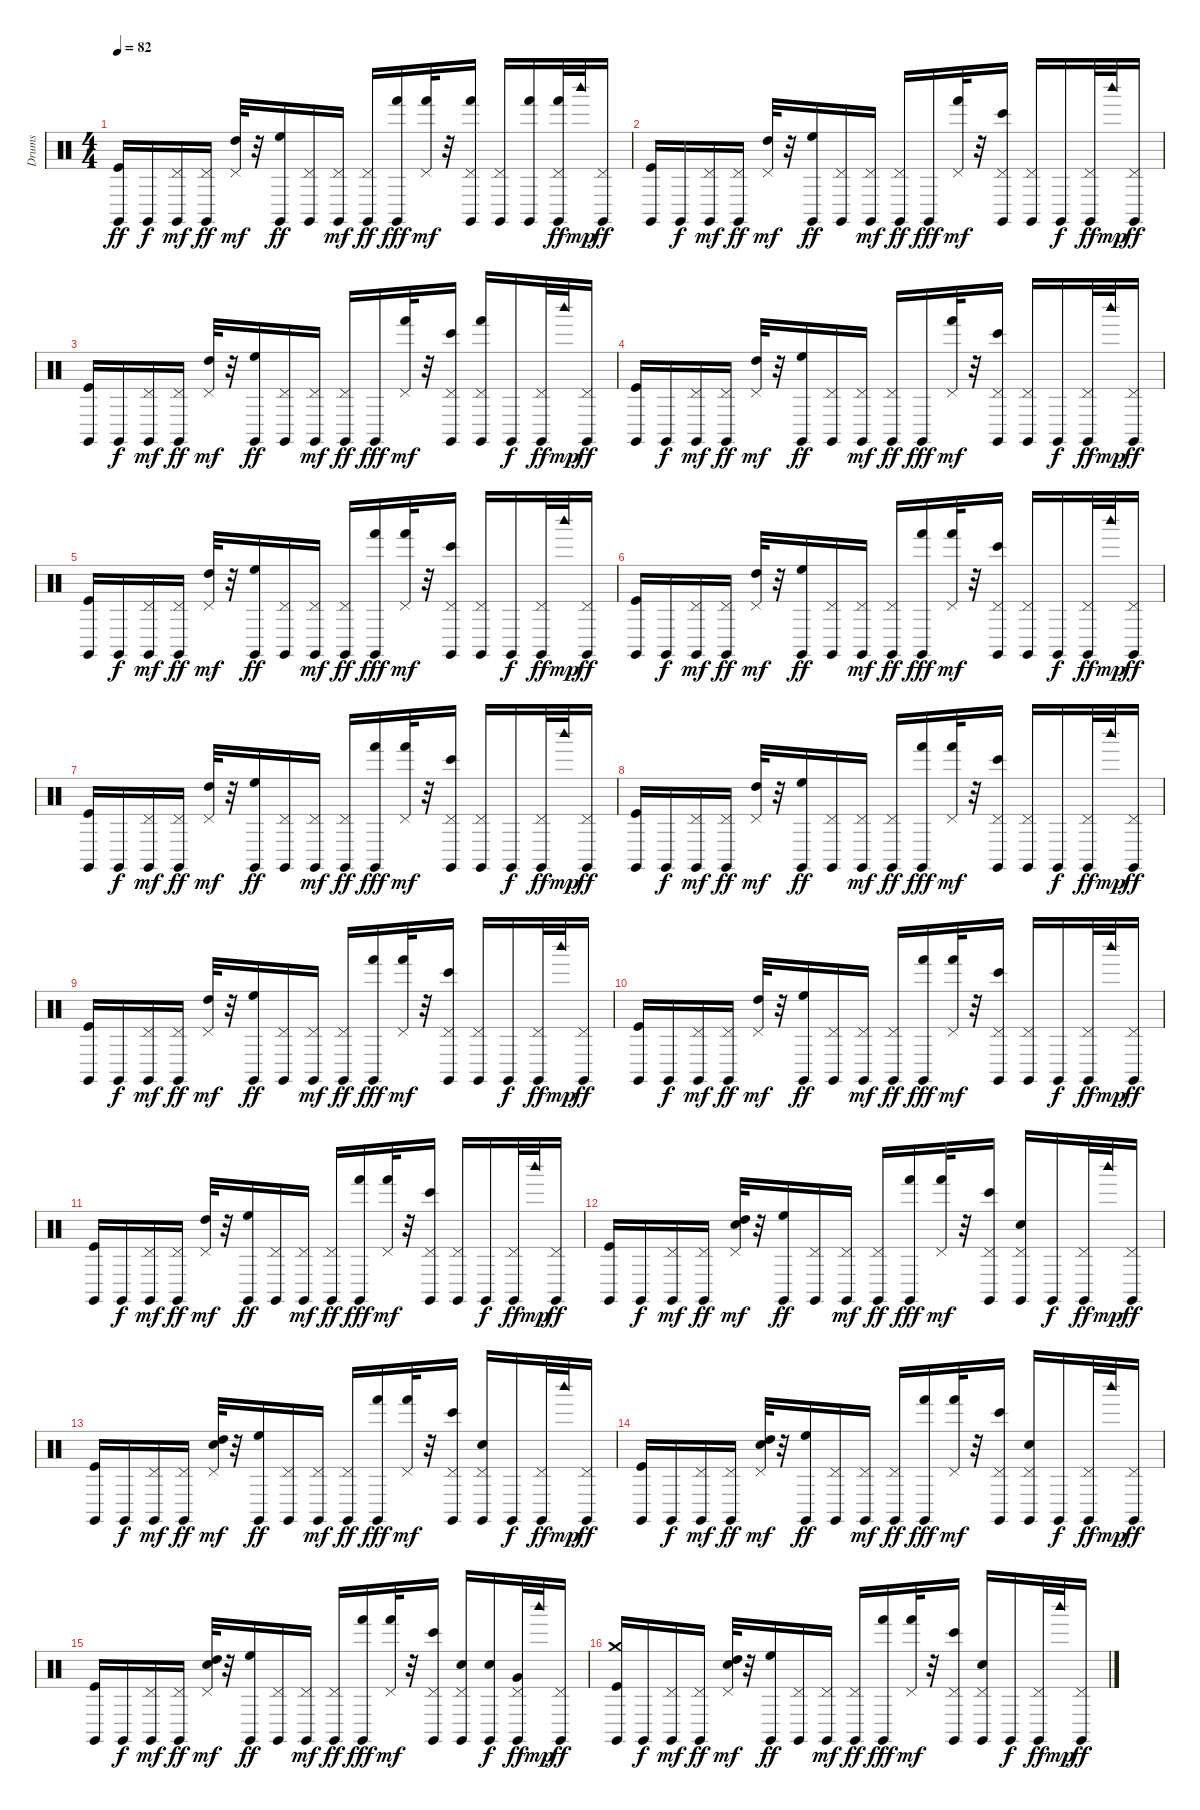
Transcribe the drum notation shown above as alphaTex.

\track ("Drums" "Drums") {instrument percussion}
\staff {score}
\articulation defaults
\ts (4 4)
\tempo 82
\clef neutral
\ks c
("Kick (hit)" "Claves (hit)").16{dy ff} "Claves (hit)".16{dy f} ("Pedal Hi-Hat (hit)" "Claves (hit)").16{dy mf} ("Pedal Hi-Hat (hit)" "Claves (hit)").16{dy ff} ("High Tom (hit)" "Pedal Hi-Hat (hit)").32{dy mf} r.32 ("High Floor Tom (hit)" "Claves (hit)").16{dy ff} ("Pedal Hi-Hat (hit)" "Claves (hit)").16 ("Pedal Hi-Hat (hit)" "Claves (hit)").16{dy mf} ("Pedal Hi-Hat (hit)" "Claves (hit)").16{dy ff} ("Hand (hit)" "Claves (hit)").16{dy fff} ("Hand (hit)" "Pedal Hi-Hat (hit)").32{dy mf} r.32 ("Hand (hit)" "Pedal Hi-Hat (hit)" "Claves (hit)").16 ("Pedal Hi-Hat (hit)" "Claves (hit)").16 ("Hand (hit)" "Claves (hit)").16 ("Hand (hit)" "Pedal Hi-Hat (hit)" "Claves (hit)").32{dy ff} "Woodblock high (hit)".32{dy mp} ("Pedal Hi-Hat (hit)" "Claves (hit)").16{dy ff} |
("Kick (hit)" "Claves (hit)").16 "Claves (hit)".16{dy f} ("Pedal Hi-Hat (hit)" "Claves (hit)").16{dy mf} ("Pedal Hi-Hat (hit)" "Claves (hit)").16{dy ff} ("High Tom (hit)" "Pedal Hi-Hat (hit)").32{dy mf} r.32 ("High Floor Tom (hit)" "Claves (hit)").16{dy ff} ("Pedal Hi-Hat (hit)" "Claves (hit)").16 ("Pedal Hi-Hat (hit)" "Claves (hit)").16{dy mf} ("Pedal Hi-Hat (hit)" "Claves (hit)").16{dy ff} "Claves (hit)".16{dy fff} ("Hand (hit)" "Pedal Hi-Hat (hit)").32{dy mf} r.32 ("Bongo High (hit)" "Pedal Hi-Hat (hit)" "Claves (hit)").16 ("Pedal Hi-Hat (hit)" "Claves (hit)").16 "Claves (hit)".16{dy f} ("Pedal Hi-Hat (hit)" "Claves (hit)").32{dy ff} "Woodblock high (hit)".32{dy mp} ("Pedal Hi-Hat (hit)" "Claves (hit)").16{dy ff} |
("Kick (hit)" "Claves (hit)").16 "Claves (hit)".16{dy f} ("Pedal Hi-Hat (hit)" "Claves (hit)").16{dy mf} ("Pedal Hi-Hat (hit)" "Claves (hit)").16{dy ff} ("High Tom (hit)" "Pedal Hi-Hat (hit)").32{dy mf} r.32 ("High Floor Tom (hit)" "Claves (hit)").16{dy ff} ("Pedal Hi-Hat (hit)" "Claves (hit)").16 ("Pedal Hi-Hat (hit)" "Claves (hit)").16{dy mf} ("Pedal Hi-Hat (hit)" "Claves (hit)").16{dy ff} "Claves (hit)".16{dy fff} ("Hand (hit)" "Pedal Hi-Hat (hit)").32{dy mf} r.32 ("Bongo High (hit)" "Pedal Hi-Hat (hit)" "Claves (hit)").16 ("Hand (hit)" "Pedal Hi-Hat (hit)" "Claves (hit)").16 "Claves (hit)".16{dy f} ("Pedal Hi-Hat (hit)" "Claves (hit)").32{dy ff} "Woodblock high (hit)".32{dy mp} ("Pedal Hi-Hat (hit)" "Claves (hit)").16{dy ff} |
("Kick (hit)" "Claves (hit)").16{volume 12} "Claves (hit)".16{dy f} ("Pedal Hi-Hat (hit)" "Claves (hit)").16{dy mf} ("Pedal Hi-Hat (hit)" "Claves (hit)").16{dy ff} ("High Tom (hit)" "Pedal Hi-Hat (hit)").32{dy mf} r.32 ("High Floor Tom (hit)" "Claves (hit)").16{dy ff} ("Pedal Hi-Hat (hit)" "Claves (hit)").16 ("Pedal Hi-Hat (hit)" "Claves (hit)").16{dy mf} ("Pedal Hi-Hat (hit)" "Claves (hit)").16{dy ff} "Claves (hit)".16{dy fff} ("Hand (hit)" "Pedal Hi-Hat (hit)").32{dy mf volume 13} r.32 ("Bongo High (hit)" "Pedal Hi-Hat (hit)" "Claves (hit)").16 ("Pedal Hi-Hat (hit)" "Claves (hit)").16 "Claves (hit)".16{dy f} ("Pedal Hi-Hat (hit)" "Claves (hit)").32{dy ff} "Woodblock high (hit)".32{dy mp} ("Pedal Hi-Hat (hit)" "Claves (hit)").16{dy ff} |
("Kick (hit)" "Claves (hit)").16 "Claves (hit)".16{dy f} ("Pedal Hi-Hat (hit)" "Claves (hit)").16{dy mf} ("Pedal Hi-Hat (hit)" "Claves (hit)").16{dy ff} ("High Tom (hit)" "Pedal Hi-Hat (hit)").32{dy mf volume 13} r.32 ("High Floor Tom (hit)" "Claves (hit)").16{dy ff} ("Pedal Hi-Hat (hit)" "Claves (hit)").16 ("Pedal Hi-Hat (hit)" "Claves (hit)").16{dy mf} ("Pedal Hi-Hat (hit)" "Claves (hit)").16{dy ff} ("Hand (hit)" "Claves (hit)").16{dy fff} ("Hand (hit)" "Pedal Hi-Hat (hit)").32{dy mf} r.32 ("Bongo High (hit)" "Pedal Hi-Hat (hit)" "Claves (hit)").16 ("Pedal Hi-Hat (hit)" "Claves (hit)").16 "Claves (hit)".16{dy f volume 13} ("Pedal Hi-Hat (hit)" "Claves (hit)").32{dy ff} "Woodblock high (hit)".32{dy mp} ("Pedal Hi-Hat (hit)" "Claves (hit)").16{dy ff} |
("Kick (hit)" "Claves (hit)").16 "Claves (hit)".16{dy f} ("Pedal Hi-Hat (hit)" "Claves (hit)").16{dy mf} ("Pedal Hi-Hat (hit)" "Claves (hit)").16{dy ff} ("High Tom (hit)" "Pedal Hi-Hat (hit)").32{dy mf} r.32 ("High Floor Tom (hit)" "Claves (hit)").16{dy ff} ("Pedal Hi-Hat (hit)" "Claves (hit)").16 ("Pedal Hi-Hat (hit)" "Claves (hit)").16{dy mf volume 13} ("Pedal Hi-Hat (hit)" "Claves (hit)").16{dy ff} ("Hand (hit)" "Claves (hit)").16{dy fff} ("Hand (hit)" "Pedal Hi-Hat (hit)").32{dy mf} r.32 ("Bongo High (hit)" "Pedal Hi-Hat (hit)" "Claves (hit)").16 ("Pedal Hi-Hat (hit)" "Claves (hit)").16 "Claves (hit)".16{dy f} ("Pedal Hi-Hat (hit)" "Claves (hit)").32{dy ff} "Woodblock high (hit)".32{dy mp} ("Pedal Hi-Hat (hit)" "Claves (hit)").16{dy ff} |
("Kick (hit)" "Claves (hit)").16{volume 13} "Claves (hit)".16{dy f} ("Pedal Hi-Hat (hit)" "Claves (hit)").16{dy mf} ("Pedal Hi-Hat (hit)" "Claves (hit)").16{dy ff} ("High Tom (hit)" "Pedal Hi-Hat (hit)").32{dy mf} r.32 ("High Floor Tom (hit)" "Claves (hit)").16{dy ff} ("Pedal Hi-Hat (hit)" "Claves (hit)").16 ("Pedal Hi-Hat (hit)" "Claves (hit)").16{dy mf} ("Pedal Hi-Hat (hit)" "Claves (hit)").16{dy ff} ("Hand (hit)" "Claves (hit)").16{dy fff} ("Hand (hit)" "Pedal Hi-Hat (hit)").32{dy mf volume 13} r.32 ("Bongo High (hit)" "Pedal Hi-Hat (hit)" "Claves (hit)").16 ("Pedal Hi-Hat (hit)" "Claves (hit)").16 "Claves (hit)".16{dy f} ("Pedal Hi-Hat (hit)" "Claves (hit)").32{dy ff} "Woodblock high (hit)".32{dy mp} ("Pedal Hi-Hat (hit)" "Claves (hit)").16{dy ff} |
("Kick (hit)" "Claves (hit)").16 "Claves (hit)".16{dy f} ("Pedal Hi-Hat (hit)" "Claves (hit)").16{dy mf} ("Pedal Hi-Hat (hit)" "Claves (hit)").16{dy ff} ("High Tom (hit)" "Pedal Hi-Hat (hit)").32{dy mf volume 13} r.32 ("High Floor Tom (hit)" "Claves (hit)").16{dy ff} ("Pedal Hi-Hat (hit)" "Claves (hit)").16 ("Pedal Hi-Hat (hit)" "Claves (hit)").16{dy mf} ("Pedal Hi-Hat (hit)" "Claves (hit)").16{dy ff} ("Hand (hit)" "Claves (hit)").16{dy fff} ("Hand (hit)" "Pedal Hi-Hat (hit)").32{dy mf} r.32 ("Bongo High (hit)" "Pedal Hi-Hat (hit)" "Claves (hit)").16 ("Pedal Hi-Hat (hit)" "Claves (hit)").16 "Claves (hit)".16{dy f volume 14} ("Pedal Hi-Hat (hit)" "Claves (hit)").32{dy ff} "Woodblock high (hit)".32{dy mp} ("Pedal Hi-Hat (hit)" "Claves (hit)").16{dy ff} |
("Kick (hit)" "Claves (hit)").16 "Claves (hit)".16{dy f} ("Pedal Hi-Hat (hit)" "Claves (hit)").16{dy mf} ("Pedal Hi-Hat (hit)" "Claves (hit)").16{dy ff} ("High Tom (hit)" "Pedal Hi-Hat (hit)").32{dy mf} r.32 ("High Floor Tom (hit)" "Claves (hit)").16{dy ff} ("Pedal Hi-Hat (hit)" "Claves (hit)").16 ("Pedal Hi-Hat (hit)" "Claves (hit)").16{dy mf volume 14} ("Pedal Hi-Hat (hit)" "Claves (hit)").16{dy ff} ("Hand (hit)" "Claves (hit)").16{dy fff} ("Hand (hit)" "Pedal Hi-Hat (hit)").32{dy mf} r.32 ("Bongo High (hit)" "Pedal Hi-Hat (hit)" "Claves (hit)").16 ("Pedal Hi-Hat (hit)" "Claves (hit)").16 "Claves (hit)".16{dy f} ("Pedal Hi-Hat (hit)" "Claves (hit)").32{dy ff} "Woodblock high (hit)".32{dy mp} ("Pedal Hi-Hat (hit)" "Claves (hit)").16{dy ff} |
("Kick (hit)" "Claves (hit)").16{volume 14} "Claves (hit)".16{dy f} ("Pedal Hi-Hat (hit)" "Claves (hit)").16{dy mf} ("Pedal Hi-Hat (hit)" "Claves (hit)").16{dy ff} ("High Tom (hit)" "Pedal Hi-Hat (hit)").32{dy mf} r.32 ("High Floor Tom (hit)" "Claves (hit)").16{dy ff} ("Pedal Hi-Hat (hit)" "Claves (hit)").16 ("Pedal Hi-Hat (hit)" "Claves (hit)").16{dy mf} ("Pedal Hi-Hat (hit)" "Claves (hit)").16{dy ff} ("Hand (hit)" "Claves (hit)").16{dy fff} ("Hand (hit)" "Pedal Hi-Hat (hit)").32{dy mf} r.32 ("Bongo High (hit)" "Pedal Hi-Hat (hit)" "Claves (hit)").16 ("Pedal Hi-Hat (hit)" "Claves (hit)").16 "Claves (hit)".16{dy f} ("Pedal Hi-Hat (hit)" "Claves (hit)").32{dy ff} "Woodblock high (hit)".32{dy mp} ("Pedal Hi-Hat (hit)" "Claves (hit)").16{dy ff} |
("Kick (hit)" "Claves (hit)").16 "Claves (hit)".16{dy f} ("Pedal Hi-Hat (hit)" "Claves (hit)").16{dy mf} ("Pedal Hi-Hat (hit)" "Claves (hit)").16{dy ff} ("High Tom (hit)" "Pedal Hi-Hat (hit)").32{dy mf} r.32 ("High Floor Tom (hit)" "Claves (hit)").16{dy ff} ("Pedal Hi-Hat (hit)" "Claves (hit)").16 ("Pedal Hi-Hat (hit)" "Claves (hit)").16{dy mf} ("Pedal Hi-Hat (hit)" "Claves (hit)").16{dy ff} ("Hand (hit)" "Claves (hit)").16{dy fff} ("Hand (hit)" "Pedal Hi-Hat (hit)").32{dy mf} r.32 ("Bongo High (hit)" "Pedal Hi-Hat (hit)" "Claves (hit)").16 ("Pedal Hi-Hat (hit)" "Claves (hit)").16 "Claves (hit)".16{dy f} ("Pedal Hi-Hat (hit)" "Claves (hit)").32{dy ff} "Woodblock high (hit)".32{dy mp} ("Pedal Hi-Hat (hit)" "Claves (hit)").16{dy ff} |
("Kick (hit)" "Claves (hit)").16 "Claves (hit)".16{dy f} ("Pedal Hi-Hat (hit)" "Claves (hit)").16{dy mf} ("Pedal Hi-Hat (hit)" "Claves (hit)").16{dy ff} ("Electric Snare (hit)" "High Tom (hit)" "Pedal Hi-Hat (hit)").32{dy mf} r.32 ("High Floor Tom (hit)" "Claves (hit)").16{dy ff} ("Pedal Hi-Hat (hit)" "Claves (hit)").16 ("Pedal Hi-Hat (hit)" "Claves (hit)").16{dy mf} ("Pedal Hi-Hat (hit)" "Claves (hit)").16{dy ff} ("Hand (hit)" "Claves (hit)").16{dy fff} ("Hand (hit)" "Pedal Hi-Hat (hit)").32{dy mf} r.32 ("Bongo High (hit)" "Pedal Hi-Hat (hit)" "Claves (hit)").16 ("Electric Snare (hit)" "Pedal Hi-Hat (hit)" "Claves (hit)").16 "Claves (hit)".16{dy f} ("Pedal Hi-Hat (hit)" "Claves (hit)").32{dy ff} "Woodblock high (hit)".32{dy mp} ("Pedal Hi-Hat (hit)" "Claves (hit)").16{dy ff} |
("Kick (hit)" "Claves (hit)").16 "Claves (hit)".16{dy f} ("Pedal Hi-Hat (hit)" "Claves (hit)").16{dy mf} ("Pedal Hi-Hat (hit)" "Claves (hit)").16{dy ff} ("Electric Snare (hit)" "High Tom (hit)" "Pedal Hi-Hat (hit)").32{dy mf} r.32 ("High Floor Tom (hit)" "Claves (hit)").16{dy ff} ("Pedal Hi-Hat (hit)" "Claves (hit)").16 ("Pedal Hi-Hat (hit)" "Claves (hit)").16{dy mf} ("Pedal Hi-Hat (hit)" "Claves (hit)").16{dy ff} ("Hand (hit)" "Claves (hit)").16{dy fff} ("Hand (hit)" "Pedal Hi-Hat (hit)").32{dy mf} r.32 ("Bongo High (hit)" "Pedal Hi-Hat (hit)" "Claves (hit)").16 ("Electric Snare (hit)" "Pedal Hi-Hat (hit)" "Claves (hit)").16 "Claves (hit)".16{dy f} ("Pedal Hi-Hat (hit)" "Claves (hit)").32{dy ff} "Woodblock high (hit)".32{dy mp} ("Pedal Hi-Hat (hit)" "Claves (hit)").16{dy ff} |
("Kick (hit)" "Claves (hit)").16 "Claves (hit)".16{dy f} ("Pedal Hi-Hat (hit)" "Claves (hit)").16{dy mf} ("Pedal Hi-Hat (hit)" "Claves (hit)").16{dy ff} ("Electric Snare (hit)" "High Tom (hit)" "Pedal Hi-Hat (hit)").32{dy mf} r.32 ("High Floor Tom (hit)" "Claves (hit)").16{dy ff} ("Pedal Hi-Hat (hit)" "Claves (hit)").16 ("Pedal Hi-Hat (hit)" "Claves (hit)").16{dy mf} ("Pedal Hi-Hat (hit)" "Claves (hit)").16{dy ff} ("Hand (hit)" "Claves (hit)").16{dy fff} ("Hand (hit)" "Pedal Hi-Hat (hit)").32{dy mf} r.32 ("Bongo High (hit)" "Pedal Hi-Hat (hit)" "Claves (hit)").16 ("Electric Snare (hit)" "Pedal Hi-Hat (hit)" "Claves (hit)").16 "Claves (hit)".16{dy f} ("Pedal Hi-Hat (hit)" "Claves (hit)").32{dy ff} "Woodblock high (hit)".32{dy mp} ("Pedal Hi-Hat (hit)" "Claves (hit)").16{dy ff} |
("Kick (hit)" "Claves (hit)").16 "Claves (hit)".16{dy f} ("Pedal Hi-Hat (hit)" "Claves (hit)").16{dy mf} ("Pedal Hi-Hat (hit)" "Claves (hit)").16{dy ff} ("Electric Snare (hit)" "High Tom (hit)" "Pedal Hi-Hat (hit)").32{dy mf} r.32 ("High Floor Tom (hit)" "Claves (hit)").16{dy ff} ("Pedal Hi-Hat (hit)" "Claves (hit)").16 ("Pedal Hi-Hat (hit)" "Claves (hit)").16{dy mf} ("Pedal Hi-Hat (hit)" "Claves (hit)").16{dy ff} ("Hand (hit)" "Claves (hit)").16{dy fff} ("Hand (hit)" "Pedal Hi-Hat (hit)").32{dy mf} r.32 ("Bongo High (hit)" "Pedal Hi-Hat (hit)" "Claves (hit)").16 ("Electric Snare (hit)" "Pedal Hi-Hat (hit)" "Claves (hit)").16 ("Electric Snare (hit)" "Claves (hit)").16{dy f} ("Very Low Tom (hit)" "Pedal Hi-Hat (hit)" "Claves (hit)").32{dy ff} "Woodblock high (hit)".32{dy mp} ("Pedal Hi-Hat (hit)" "Claves (hit)").16{dy ff} |
("Crash medium (hit)" "Kick (hit)" "Claves (hit)").16 "Claves (hit)".16{dy f} ("Pedal Hi-Hat (hit)" "Claves (hit)").16{dy mf} ("Pedal Hi-Hat (hit)" "Claves (hit)").16{dy ff} ("Electric Snare (hit)" "High Tom (hit)" "Pedal Hi-Hat (hit)").32{dy mf} r.32 ("High Floor Tom (hit)" "Claves (hit)").16{dy ff} ("Pedal Hi-Hat (hit)" "Claves (hit)").16 ("Pedal Hi-Hat (hit)" "Claves (hit)").16{dy mf} ("Pedal Hi-Hat (hit)" "Claves (hit)").16{dy ff} ("Hand (hit)" "Claves (hit)").16{dy fff} ("Hand (hit)" "Pedal Hi-Hat (hit)").32{dy mf} r.32 ("Bongo High (hit)" "Pedal Hi-Hat (hit)" "Claves (hit)").16 ("Electric Snare (hit)" "Pedal Hi-Hat (hit)" "Claves (hit)").16 "Claves (hit)".16{dy f} ("Pedal Hi-Hat (hit)" "Claves (hit)").32{dy ff} "Woodblock high (hit)".32{dy mp} ("Pedal Hi-Hat (hit)" "Claves (hit)").16{dy ff}
